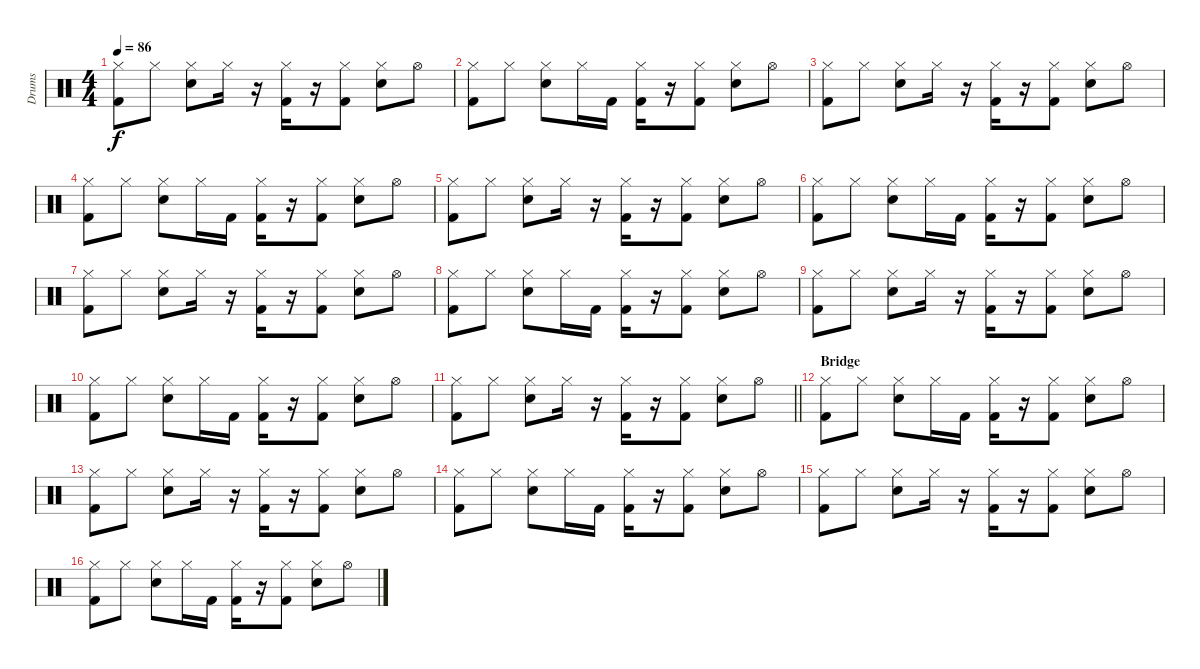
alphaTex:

\track ("Drums" "Drums") {instrument percussion}
\staff {score}
\articulation defaults
\ts (4 4)
\tempo 86
\clef neutral
\ks c
("Kick (hit) 2" "Hi-Hat (closed)").8{dy f} "Hi-Hat (closed)".8 ("Snare (hit) 2" "Hi-Hat (closed)").8 "Hi-Hat (closed)".16 r.16 ("Kick (hit) 2" "Hi-Hat (closed)").16 r.16 ("Kick (hit) 2" "Hi-Hat (closed)").8 ("Snare (hit) 2" "Hi-Hat (closed)").8 "Hi-Hat (open)".8 |
("Kick (hit) 2" "Hi-Hat (closed)").8 "Hi-Hat (closed)".8 ("Snare (hit) 2" "Hi-Hat (closed)").8 "Hi-Hat (closed)".16 "Kick (hit) 2".16 ("Kick (hit) 2" "Hi-Hat (closed)").16 r.16 ("Kick (hit) 2" "Hi-Hat (closed)").8 ("Snare (hit) 2" "Hi-Hat (closed)").8 "Hi-Hat (open)".8 |
("Kick (hit) 2" "Hi-Hat (closed)").8 "Hi-Hat (closed)".8 ("Snare (hit) 2" "Hi-Hat (closed)").8 "Hi-Hat (closed)".16 r.16 ("Kick (hit) 2" "Hi-Hat (closed)").16 r.16 ("Kick (hit) 2" "Hi-Hat (closed)").8 ("Snare (hit) 2" "Hi-Hat (closed)").8 "Hi-Hat (open)".8 |
("Kick (hit) 2" "Hi-Hat (closed)").8 "Hi-Hat (closed)".8 ("Snare (hit) 2" "Hi-Hat (closed)").8 "Hi-Hat (closed)".16 "Kick (hit) 2".16 ("Kick (hit) 2" "Hi-Hat (closed)").16 r.16 ("Kick (hit) 2" "Hi-Hat (closed)").8 ("Snare (hit) 2" "Hi-Hat (closed)").8 "Hi-Hat (open)".8 |
("Kick (hit) 2" "Hi-Hat (closed)").8 "Hi-Hat (closed)".8 ("Snare (hit) 2" "Hi-Hat (closed)").8 "Hi-Hat (closed)".16 r.16 ("Kick (hit) 2" "Hi-Hat (closed)").16 r.16 ("Kick (hit) 2" "Hi-Hat (closed)").8 ("Snare (hit) 2" "Hi-Hat (closed)").8 "Hi-Hat (open)".8 |
("Kick (hit) 2" "Hi-Hat (closed)").8 "Hi-Hat (closed)".8 ("Snare (hit) 2" "Hi-Hat (closed)").8 "Hi-Hat (closed)".16 "Kick (hit) 2".16 ("Kick (hit) 2" "Hi-Hat (closed)").16 r.16 ("Kick (hit) 2" "Hi-Hat (closed)").8 ("Snare (hit) 2" "Hi-Hat (closed)").8 "Hi-Hat (open)".8 |
("Kick (hit) 2" "Hi-Hat (closed)").8 "Hi-Hat (closed)".8 ("Snare (hit) 2" "Hi-Hat (closed)").8 "Hi-Hat (closed)".16 r.16 ("Kick (hit) 2" "Hi-Hat (closed)").16 r.16 ("Kick (hit) 2" "Hi-Hat (closed)").8 ("Snare (hit) 2" "Hi-Hat (closed)").8 "Hi-Hat (open)".8 |
("Kick (hit) 2" "Hi-Hat (closed)").8 "Hi-Hat (closed)".8 ("Snare (hit) 2" "Hi-Hat (closed)").8 "Hi-Hat (closed)".16 "Kick (hit) 2".16 ("Kick (hit) 2" "Hi-Hat (closed)").16 r.16 ("Kick (hit) 2" "Hi-Hat (closed)").8 ("Snare (hit) 2" "Hi-Hat (closed)").8 "Hi-Hat (open)".8 |
("Kick (hit) 2" "Hi-Hat (closed)").8 "Hi-Hat (closed)".8 ("Snare (hit) 2" "Hi-Hat (closed)").8 "Hi-Hat (closed)".16 r.16 ("Kick (hit) 2" "Hi-Hat (closed)").16 r.16 ("Kick (hit) 2" "Hi-Hat (closed)").8 ("Snare (hit) 2" "Hi-Hat (closed)").8 "Hi-Hat (open)".8 |
("Kick (hit) 2" "Hi-Hat (closed)").8 "Hi-Hat (closed)".8 ("Snare (hit) 2" "Hi-Hat (closed)").8 "Hi-Hat (closed)".16 "Kick (hit) 2".16 ("Kick (hit) 2" "Hi-Hat (closed)").16 r.16 ("Kick (hit) 2" "Hi-Hat (closed)").8 ("Snare (hit) 2" "Hi-Hat (closed)").8 "Hi-Hat (open)".8 |
\barLineRight lightlight
("Kick (hit) 2" "Hi-Hat (closed)").8 "Hi-Hat (closed)".8 ("Snare (hit) 2" "Hi-Hat (closed)").8 "Hi-Hat (closed)".16 r.16 ("Kick (hit) 2" "Hi-Hat (closed)").16 r.16 ("Kick (hit) 2" "Hi-Hat (closed)").8 ("Snare (hit) 2" "Hi-Hat (closed)").8 "Hi-Hat (open)".8 |
\section ("" "Bridge")
("Kick (hit) 2" "Hi-Hat (closed)").8 "Hi-Hat (closed)".8 ("Snare (hit) 2" "Hi-Hat (closed)").8 "Hi-Hat (closed)".16 "Kick (hit) 2".16 ("Kick (hit) 2" "Hi-Hat (closed)").16 r.16 ("Kick (hit) 2" "Hi-Hat (closed)").8 ("Snare (hit) 2" "Hi-Hat (closed)").8 "Hi-Hat (open)".8 |
("Kick (hit) 2" "Hi-Hat (closed)").8 "Hi-Hat (closed)".8 ("Snare (hit) 2" "Hi-Hat (closed)").8 "Hi-Hat (closed)".16 r.16 ("Kick (hit) 2" "Hi-Hat (closed)").16 r.16 ("Kick (hit) 2" "Hi-Hat (closed)").8 ("Snare (hit) 2" "Hi-Hat (closed)").8 "Hi-Hat (open)".8 |
("Kick (hit) 2" "Hi-Hat (closed)").8 "Hi-Hat (closed)".8 ("Snare (hit) 2" "Hi-Hat (closed)").8 "Hi-Hat (closed)".16 "Kick (hit) 2".16 ("Kick (hit) 2" "Hi-Hat (closed)").16 r.16 ("Kick (hit) 2" "Hi-Hat (closed)").8 ("Snare (hit) 2" "Hi-Hat (closed)").8 "Hi-Hat (open)".8 |
("Kick (hit) 2" "Hi-Hat (closed)").8 "Hi-Hat (closed)".8 ("Snare (hit) 2" "Hi-Hat (closed)").8 "Hi-Hat (closed)".16 r.16 ("Kick (hit) 2" "Hi-Hat (closed)").16 r.16 ("Kick (hit) 2" "Hi-Hat (closed)").8 ("Snare (hit) 2" "Hi-Hat (closed)").8 "Hi-Hat (open)".8 |
("Kick (hit) 2" "Hi-Hat (closed)").8 "Hi-Hat (closed)".8 ("Snare (hit) 2" "Hi-Hat (closed)").8 "Hi-Hat (closed)".16 "Kick (hit) 2".16 ("Kick (hit) 2" "Hi-Hat (closed)").16 r.16 ("Kick (hit) 2" "Hi-Hat (closed)").8 ("Snare (hit) 2" "Hi-Hat (closed)").8 "Hi-Hat (open)".8
